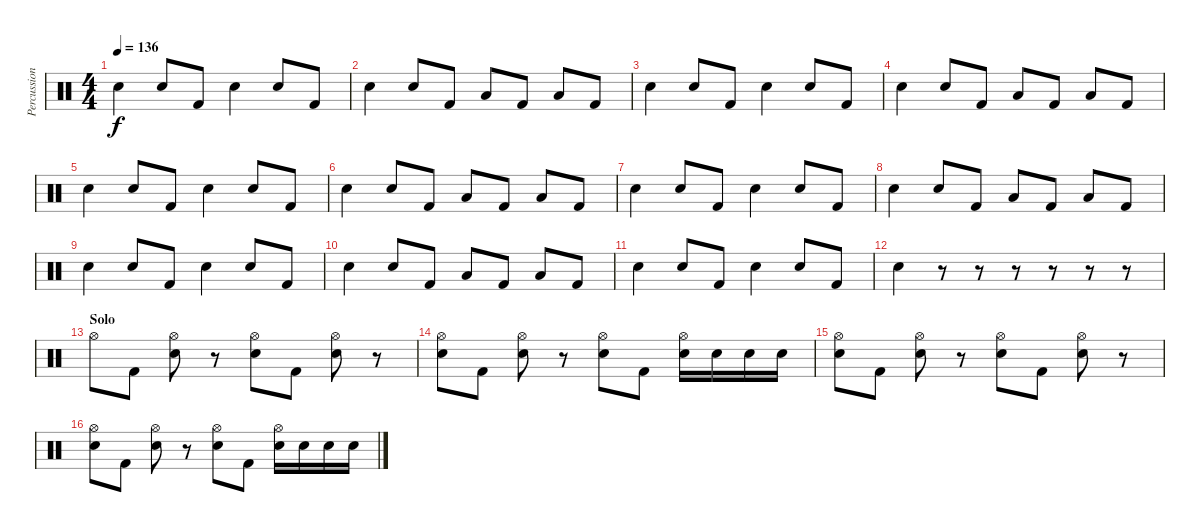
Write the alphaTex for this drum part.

\track ("Percussions" "Percussion") {instrument percussion}
\staff {score}
\articulation defaults
\ts (4 4)
\tempo 136
\clef neutral
\ks c "Snare (hit) 2".4{dy f} "Snare (hit) 2".8 "Kick (hit) 2".8 "Snare (hit) 2".4 "Snare (hit) 2".8 "Kick (hit) 2".8
|
"Snare (hit) 2".4 "Snare (hit) 2".8 "Kick (hit) 2".8 "Low Tom (hit)".8 "Kick (hit) 2".8 "Low Floor Tom (hit)".8 "Kick (hit) 2".8 |
"Snare (hit) 2".4 "Snare (hit) 2".8 "Kick (hit) 2".8 "Snare (hit) 2".4 "Snare (hit) 2".8 "Kick (hit) 2".8 |
"Snare (hit) 2".4 "Snare (hit) 2".8 "Kick (hit) 2".8 "Low Tom (hit)".8 "Kick (hit) 2".8 "Low Floor Tom (hit)".8 "Kick (hit) 2".8 |
"Snare (hit) 2".4 "Snare (hit) 2".8 "Kick (hit) 2".8 "Snare (hit) 2".4 "Snare (hit) 2".8 "Kick (hit) 2".8 |
"Snare (hit) 2".4 "Snare (hit) 2".8 "Kick (hit) 2".8 "Low Tom (hit)".8 "Kick (hit) 2".8 "Low Floor Tom (hit)".8 "Kick (hit) 2".8 |
"Snare (hit) 2".4 "Snare (hit) 2".8 "Kick (hit) 2".8 "Snare (hit) 2".4 "Snare (hit) 2".8 "Kick (hit) 2".8 |
"Snare (hit) 2".4 "Snare (hit) 2".8 "Kick (hit) 2".8 "Low Tom (hit)".8 "Kick (hit) 2".8 "Low Floor Tom (hit)".8 "Kick (hit) 2".8 |
"Snare (hit) 2".4 "Snare (hit) 2".8 "Kick (hit) 2".8 "Snare (hit) 2".4 "Snare (hit) 2".8 "Kick (hit) 2".8 |
"Snare (hit) 2".4 "Snare (hit) 2".8 "Kick (hit) 2".8 "Low Tom (hit)".8 "Kick (hit) 2".8 "Low Floor Tom (hit)".8 "Kick (hit) 2".8 |
"Snare (hit) 2".4 "Snare (hit) 2".8 "Kick (hit) 2".8 "Snare (hit) 2".4 "Snare (hit) 2".8 "Kick (hit) 2".8 |
"Snare (hit) 2".4 r.8 r.8 r.8 r.8 r.8 r.8 |
\section ("" "Solo")
"Hi-Hat (open)".8 "Kick (hit) 2".8 ("Hi-Hat (open)" "Snare (hit) 2").8 r.8 ("Hi-Hat (open)" "Snare (hit) 2").8 "Kick (hit) 2".8 ("Hi-Hat (open)" "Snare (hit) 2").8 r.8 |
("Hi-Hat (open)" "Snare (hit) 2").8 "Kick (hit) 2".8 ("Hi-Hat (open)" "Snare (hit) 2").8 r.8 ("Hi-Hat (open)" "Snare (hit) 2").8 "Kick (hit) 2".8 ("Hi-Hat (open)" "Snare (hit) 2").16 "Snare (hit) 2".16 "Snare (hit) 2".16 "Snare (hit) 2".16 |
("Hi-Hat (open)" "Snare (hit) 2").8 "Kick (hit) 2".8 ("Hi-Hat (open)" "Snare (hit) 2").8 r.8 ("Hi-Hat (open)" "Snare (hit) 2").8 "Kick (hit) 2".8 ("Hi-Hat (open)" "Snare (hit) 2").8 r.8 |
("Hi-Hat (open)" "Snare (hit) 2").8 "Kick (hit) 2".8 ("Hi-Hat (open)" "Snare (hit) 2").8 r.8 ("Hi-Hat (open)" "Snare (hit) 2").8 "Kick (hit) 2".8 ("Hi-Hat (open)" "Snare (hit) 2").16 "Snare (hit) 2".16 "Snare (hit) 2".16 "Snare (hit) 2".16
